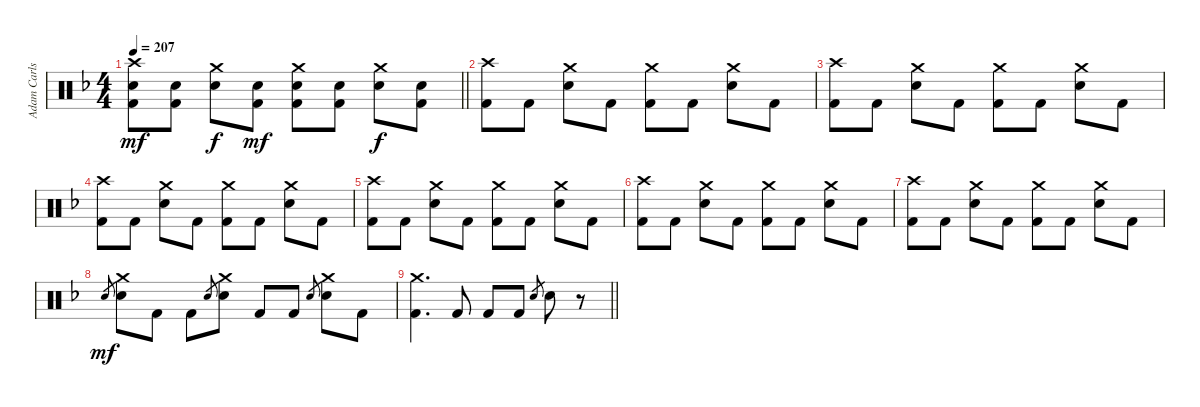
\track ("Adam Carlson" "Adam Carls") {instrument percussion}
\staff {score}
\articulation defaults
\ts (4 4)
\tempo 207
\clef neutral
\barLineRight lightlight
\ks f
("Crash high (hit)" "Electric Snare (hit)" "Kick (hit) 2").8{dy mf} ("Electric Snare (hit)" "Kick (hit) 2").8 ("Crash medium (hit)" "Electric Snare (hit)").8{dy f} ("Electric Snare (hit)" "Kick (hit) 2").8{dy mf} ("Crash medium (hit)" "Electric Snare (hit)" "Kick (hit) 2").8 ("Electric Snare (hit)" "Kick (hit) 2").8 ("Crash medium (hit)" "Electric Snare (hit)").8{dy f} ("Electric Snare (hit)" "Kick (hit) 2").8 |
("Crash high (hit)" "Kick (hit) 2").8 "Kick (hit) 2".8 ("Crash medium (hit)" "Electric Snare (hit)").8 "Kick (hit) 2".8 ("Crash medium (hit)" "Kick (hit) 2").8 "Kick (hit) 2".8 ("Crash medium (hit)" "Electric Snare (hit)").8 "Kick (hit) 2".8 |
("Crash high (hit)" "Kick (hit) 2").8 "Kick (hit) 2".8 ("Crash medium (hit)" "Electric Snare (hit)").8 "Kick (hit) 2".8 ("Crash medium (hit)" "Kick (hit) 2").8 "Kick (hit) 2".8 ("Crash medium (hit)" "Electric Snare (hit)").8 "Kick (hit) 2".8 |
("Crash high (hit)" "Kick (hit) 2").8 "Kick (hit) 2".8 ("Crash medium (hit)" "Electric Snare (hit)").8 "Kick (hit) 2".8 ("Crash medium (hit)" "Kick (hit) 2").8 "Kick (hit) 2".8 ("Crash medium (hit)" "Electric Snare (hit)").8 "Kick (hit) 2".8 |
("Crash high (hit)" "Kick (hit) 2").8 "Kick (hit) 2".8 ("Crash medium (hit)" "Electric Snare (hit)").8 "Kick (hit) 2".8 ("Crash medium (hit)" "Kick (hit) 2").8 "Kick (hit) 2".8 ("Crash medium (hit)" "Electric Snare (hit)").8 "Kick (hit) 2".8 |
("Crash high (hit)" "Kick (hit) 2").8 "Kick (hit) 2".8 ("Crash medium (hit)" "Electric Snare (hit)").8 "Kick (hit) 2".8 ("Crash medium (hit)" "Kick (hit) 2").8 "Kick (hit) 2".8 ("Crash medium (hit)" "Electric Snare (hit)").8 "Kick (hit) 2".8 |
("Crash high (hit)" "Kick (hit) 2").8 "Kick (hit) 2".8 ("Crash medium (hit)" "Electric Snare (hit)").8 "Kick (hit) 2".8 ("Crash medium (hit)" "Kick (hit) 2").8 "Kick (hit) 2".8 ("Crash medium (hit)" "Electric Snare (hit)").8 "Kick (hit) 2".8 |
"Electric Snare (hit)".8{gr dy mf} ("Crash medium (hit)" "Electric Snare (hit)").8 "Kick (hit) 2".8 "Kick (hit) 2".8 "Electric Snare (hit)".8{gr} ("Crash medium (hit)" "Electric Snare (hit)").8 "Kick (hit) 2".8 "Kick (hit) 2".8 "Electric Snare (hit)".8{gr} ("Crash medium (hit)" "Electric Snare (hit)").8 "Kick (hit) 2".8 |
\barLineRight lightlight
("Kick (hit) 2" "Crash medium (hit)").4{d} "Kick (hit) 2".8 "Kick (hit) 2".8 "Kick (hit) 2".8 "Electric Snare (hit)".8{gr} "Electric Snare (hit)".8 r.8
